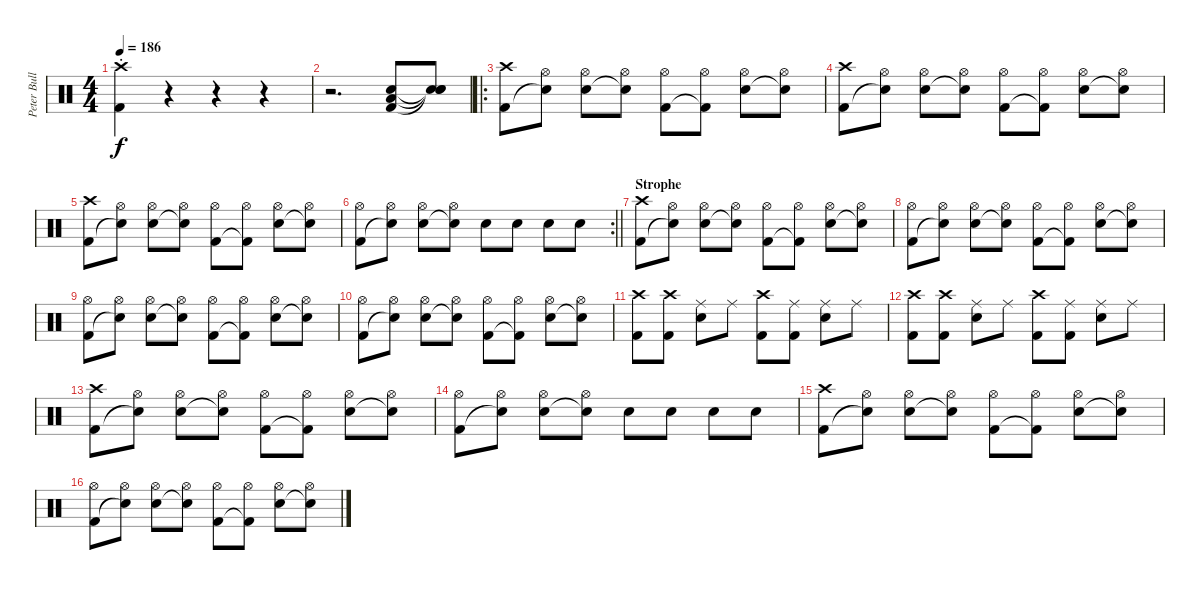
\track ("Peter Bullrich" "Peter Bull") {instrument percussion}
\staff {score}
\articulation defaults
\ts (4 4)
\tempo 186
\clef neutral
\ks c
("Crash high (hit)"{st} "Kick (hit) 2"{st}).4{dy f} r.4 r.4 r.4 |
r.2{d} ("Low Floor Tom (hit)" "Kick (hit) 2" "Electric Snare (hit)").8 ("Snare (hit)"{t} "Snare (hit)"{t} "Snare (hit)"{t}).8 |
\ro
("Crash high (hit)" "Kick (hit) 2").8 ("Hi-Hat (open)" "Electric Snare (hit)"{t}).8 ("Hi-Hat (open)" "Electric Snare (hit)").8 ("Hi-Hat (open)" "Snare (hit)"{t}).8 ("Hi-Hat (open)" "Kick (hit) 2").8 ("Hi-Hat (open)" "Kick (hit) 2"{t}).8 ("Hi-Hat (open)" "Electric Snare (hit)").8 ("Hi-Hat (open)" "Electric Snare (hit)"{t}).8 |
("Crash high (hit)" "Kick (hit) 2").8 ("Hi-Hat (open)" "Electric Snare (hit)"{t}).8 ("Hi-Hat (open)" "Electric Snare (hit)").8 ("Hi-Hat (open)" "Snare (hit)"{t}).8 ("Hi-Hat (open)" "Kick (hit) 2").8 ("Hi-Hat (open)" "Kick (hit) 2"{t}).8 ("Hi-Hat (open)" "Electric Snare (hit)").8 ("Hi-Hat (open)" "Electric Snare (hit)"{t}).8 |
("Crash high (hit)" "Kick (hit) 2").8 ("Hi-Hat (open)" "Electric Snare (hit)"{t}).8 ("Hi-Hat (open)" "Electric Snare (hit)").8 ("Hi-Hat (open)" "Snare (hit)"{t}).8 ("Hi-Hat (open)" "Kick (hit) 2").8 ("Hi-Hat (open)" "Kick (hit) 2"{t}).8 ("Hi-Hat (open)" "Electric Snare (hit)").8 ("Hi-Hat (open)" "Electric Snare (hit)"{t}).8 |
\rc 2
\barLineRight lightlight
("Hi-Hat (open)" "Kick (hit) 2").8 ("Hi-Hat (open)" "Electric Snare (hit)"{t}).8 ("Hi-Hat (open)" "Electric Snare (hit)").8 ("Hi-Hat (open)" "Snare (hit)"{t}).8 "Electric Snare (hit)".8 "Electric Snare (hit)".8 "Electric Snare (hit)".8 "Electric Snare (hit)".8 |
\section ("" "Strophe")
("Crash high (hit)" "Kick (hit) 2").8 ("Hi-Hat (open)" "Electric Snare (hit)"{t}).8 ("Hi-Hat (open)" "Electric Snare (hit)").8 ("Hi-Hat (open)" "Snare (hit)"{t}).8 ("Hi-Hat (open)" "Kick (hit) 2").8 ("Hi-Hat (open)" "Kick (hit) 2"{t}).8 ("Hi-Hat (open)" "Electric Snare (hit)").8 ("Hi-Hat (open)" "Electric Snare (hit)"{t}).8 |
("Hi-Hat (open)" "Kick (hit) 2").8 ("Hi-Hat (open)" "Electric Snare (hit)"{t}).8 ("Hi-Hat (open)" "Electric Snare (hit)").8 ("Hi-Hat (open)" "Snare (hit)"{t}).8 ("Hi-Hat (open)" "Kick (hit) 2").8 ("Hi-Hat (open)" "Kick (hit) 2"{t}).8 ("Hi-Hat (open)" "Electric Snare (hit)").8 ("Hi-Hat (open)" "Electric Snare (hit)"{t}).8 |
("Hi-Hat (open)" "Kick (hit) 2").8 ("Hi-Hat (open)" "Electric Snare (hit)"{t}).8 ("Hi-Hat (open)" "Electric Snare (hit)").8 ("Hi-Hat (open)" "Snare (hit)"{t}).8 ("Hi-Hat (open)" "Kick (hit) 2").8 ("Hi-Hat (open)" "Kick (hit) 2"{t}).8 ("Hi-Hat (open)" "Electric Snare (hit)").8 ("Hi-Hat (open)" "Electric Snare (hit)"{t}).8 |
("Hi-Hat (open)" "Kick (hit) 2").8 ("Hi-Hat (open)" "Electric Snare (hit)"{t}).8 ("Hi-Hat (open)" "Electric Snare (hit)").8 ("Hi-Hat (open)" "Snare (hit)"{t}).8 ("Hi-Hat (open)" "Kick (hit) 2").8 ("Hi-Hat (open)" "Kick (hit) 2"{t}).8 ("Hi-Hat (open)" "Electric Snare (hit)").8 ("Hi-Hat (open)" "Electric Snare (hit)"{t}).8 |
("Crash high (hit)" "Kick (hit) 2").8 ("Crash high (hit)" "Kick (hit) 2").8 ("Ride (middle)" "Electric Snare (hit)").8 "Ride (middle)".8 ("Crash high (hit)" "Kick (hit) 2").8 ("Ride (middle)" "Kick (hit) 2").8 ("Ride (middle)" "Electric Snare (hit)").8 "Ride (middle)".8 |
("Crash high (hit)" "Kick (hit) 2").8 ("Crash high (hit)" "Kick (hit) 2").8 ("Ride (middle)" "Electric Snare (hit)").8 "Ride (middle)".8 ("Crash high (hit)" "Kick (hit) 2").8 ("Ride (middle)" "Kick (hit) 2").8 ("Ride (middle)" "Electric Snare (hit)").8 "Ride (middle)".8 |
("Crash high (hit)" "Kick (hit) 2").8 ("Hi-Hat (open)" "Electric Snare (hit)"{t}).8 ("Hi-Hat (open)" "Electric Snare (hit)").8 ("Hi-Hat (open)" "Snare (hit)"{t}).8 ("Hi-Hat (open)" "Kick (hit) 2").8 ("Hi-Hat (open)" "Kick (hit) 2"{t}).8 ("Hi-Hat (open)" "Electric Snare (hit)").8 ("Hi-Hat (open)" "Electric Snare (hit)"{t}).8 |
("Hi-Hat (open)" "Kick (hit) 2").8 ("Hi-Hat (open)" "Electric Snare (hit)"{t}).8 ("Hi-Hat (open)" "Electric Snare (hit)").8 ("Hi-Hat (open)" "Snare (hit)"{t}).8 "Electric Snare (hit)".8 "Electric Snare (hit)".8 "Electric Snare (hit)".8 "Electric Snare (hit)".8 |
("Crash high (hit)" "Kick (hit) 2").8 ("Hi-Hat (open)" "Electric Snare (hit)"{t}).8 ("Hi-Hat (open)" "Electric Snare (hit)").8 ("Hi-Hat (open)" "Snare (hit)"{t}).8 ("Hi-Hat (open)" "Kick (hit) 2").8 ("Hi-Hat (open)" "Kick (hit) 2"{t}).8 ("Hi-Hat (open)" "Electric Snare (hit)").8 ("Hi-Hat (open)" "Electric Snare (hit)"{t}).8 |
("Hi-Hat (open)" "Kick (hit) 2").8 ("Hi-Hat (open)" "Electric Snare (hit)"{t}).8 ("Hi-Hat (open)" "Electric Snare (hit)").8 ("Hi-Hat (open)" "Snare (hit)"{t}).8 ("Hi-Hat (open)" "Kick (hit) 2").8 ("Hi-Hat (open)" "Kick (hit) 2"{t}).8 ("Hi-Hat (open)" "Electric Snare (hit)").8 ("Hi-Hat (open)" "Electric Snare (hit)"{t}).8
